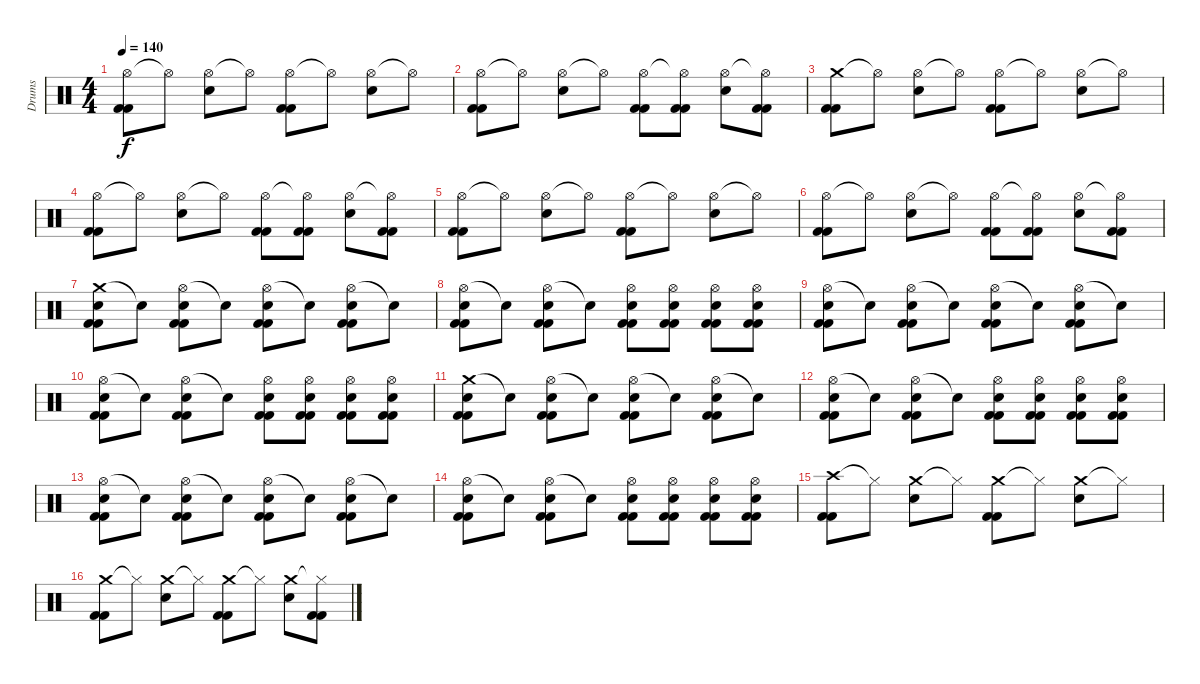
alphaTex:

\track ("Drums" "Drums") {instrument percussion}
\staff {score}
\articulation defaults
\ts (4 4)
\tempo 140
\clef neutral
\ks c
("Hi-Hat (open)" "Kick (hit) 2" "Kick (hit) 2").8{dy f} "Hi-Hat (open)"{t}.8 ("Hi-Hat (open)" "Electric Snare (hit)").8 "Hi-Hat (open)"{t}.8 ("Hi-Hat (open)" "Kick (hit) 2" "Kick (hit) 2").8 "Hi-Hat (open)"{t}.8 ("Hi-Hat (open)" "Electric Snare (hit)").8 "Hi-Hat (open)"{t}.8 |
("Hi-Hat (open)" "Kick (hit) 2" "Kick (hit) 2").8 "Hi-Hat (open)"{t}.8 ("Hi-Hat (open)" "Electric Snare (hit)").8 "Hi-Hat (open)"{t}.8 ("Hi-Hat (open)" "Kick (hit) 2" "Kick (hit) 2").8 ("Hi-Hat (open)"{t} "Kick (hit) 2" "Kick (hit) 2").8 ("Hi-Hat (open)" "Electric Snare (hit)").8 ("Hi-Hat (open)"{t} "Kick (hit) 2" "Kick (hit) 2").8 |
("Crash medium (hit)" "Kick (hit) 2" "Kick (hit) 2").8 "Hi-Hat (open)"{t}.8 ("Hi-Hat (open)" "Electric Snare (hit)").8 "Hi-Hat (open)"{t}.8 ("Hi-Hat (open)" "Kick (hit) 2" "Kick (hit) 2").8 "Hi-Hat (open)"{t}.8 ("Hi-Hat (open)" "Electric Snare (hit)").8 "Hi-Hat (open)"{t}.8 |
("Hi-Hat (open)" "Kick (hit) 2" "Kick (hit) 2").8 "Hi-Hat (open)"{t}.8 ("Hi-Hat (open)" "Electric Snare (hit)").8 "Hi-Hat (open)"{t}.8 ("Hi-Hat (open)" "Kick (hit) 2" "Kick (hit) 2").8 ("Hi-Hat (open)"{t} "Kick (hit) 2" "Kick (hit) 2").8 ("Hi-Hat (open)" "Electric Snare (hit)").8 ("Hi-Hat (open)"{t} "Kick (hit) 2" "Kick (hit) 2").8 |
("Hi-Hat (open)" "Kick (hit) 2" "Kick (hit) 2").8 "Hi-Hat (open)"{t}.8 ("Hi-Hat (open)" "Electric Snare (hit)").8 "Hi-Hat (open)"{t}.8 ("Hi-Hat (open)" "Kick (hit) 2" "Kick (hit) 2").8 "Hi-Hat (open)"{t}.8 ("Hi-Hat (open)" "Electric Snare (hit)").8 "Hi-Hat (open)"{t}.8 |
("Hi-Hat (open)" "Kick (hit) 2" "Kick (hit) 2").8 "Hi-Hat (open)"{t}.8 ("Hi-Hat (open)" "Electric Snare (hit)").8 "Hi-Hat (open)"{t}.8 ("Hi-Hat (open)" "Kick (hit) 2" "Kick (hit) 2").8 ("Hi-Hat (open)"{t} "Kick (hit) 2" "Kick (hit) 2").8 ("Hi-Hat (open)" "Electric Snare (hit)").8 ("Hi-Hat (open)"{t} "Kick (hit) 2" "Kick (hit) 2").8 |
("Crash medium (hit)" "Electric Snare (hit)" "Kick (hit) 2" "Kick (hit) 2").8 "Snare (hit)"{t}.8 ("Hi-Hat (open)" "Electric Snare (hit)" "Kick (hit) 2" "Kick (hit) 2").8 "Snare (hit)"{t}.8 ("Hi-Hat (open)" "Electric Snare (hit)" "Kick (hit) 2" "Kick (hit) 2").8 "Snare (hit)"{t}.8 ("Hi-Hat (open)" "Electric Snare (hit)" "Kick (hit) 2" "Kick (hit) 2").8 "Snare (hit)"{t}.8 |
("Hi-Hat (open)" "Electric Snare (hit)" "Kick (hit) 2" "Kick (hit) 2").8 "Snare (hit)"{t}.8 ("Hi-Hat (open)" "Electric Snare (hit)" "Kick (hit) 2" "Kick (hit) 2").8 "Snare (hit)"{t}.8 ("Hi-Hat (open)" "Electric Snare (hit)" "Kick (hit) 2" "Kick (hit) 2").8 ("Hi-Hat (open)" "Electric Snare (hit)" "Kick (hit) 2" "Kick (hit) 2").8 ("Hi-Hat (open)" "Electric Snare (hit)" "Kick (hit) 2" "Kick (hit) 2").8 ("Hi-Hat (open)" "Electric Snare (hit)" "Kick (hit) 2" "Kick (hit) 2").8 |
("Hi-Hat (open)" "Electric Snare (hit)" "Kick (hit) 2" "Kick (hit) 2").8 "Snare (hit)"{t}.8 ("Hi-Hat (open)" "Electric Snare (hit)" "Kick (hit) 2" "Kick (hit) 2").8 "Snare (hit)"{t}.8 ("Hi-Hat (open)" "Electric Snare (hit)" "Kick (hit) 2" "Kick (hit) 2").8 "Snare (hit)"{t}.8 ("Hi-Hat (open)" "Electric Snare (hit)" "Kick (hit) 2" "Kick (hit) 2").8 "Snare (hit)"{t}.8 |
("Hi-Hat (open)" "Electric Snare (hit)" "Kick (hit) 2" "Kick (hit) 2").8 "Snare (hit)"{t}.8 ("Hi-Hat (open)" "Electric Snare (hit)" "Kick (hit) 2" "Kick (hit) 2").8 "Snare (hit)"{t}.8 ("Hi-Hat (open)" "Electric Snare (hit)" "Kick (hit) 2" "Kick (hit) 2").8 ("Hi-Hat (open)" "Electric Snare (hit)" "Kick (hit) 2" "Kick (hit) 2").8 ("Hi-Hat (open)" "Electric Snare (hit)" "Kick (hit) 2" "Kick (hit) 2").8 ("Hi-Hat (open)" "Electric Snare (hit)" "Kick (hit) 2" "Kick (hit) 2").8 |
("Crash medium (hit)" "Electric Snare (hit)" "Kick (hit) 2" "Kick (hit) 2").8 "Snare (hit)"{t}.8 ("Hi-Hat (open)" "Electric Snare (hit)" "Kick (hit) 2" "Kick (hit) 2").8 "Snare (hit)"{t}.8 ("Hi-Hat (open)" "Electric Snare (hit)" "Kick (hit) 2" "Kick (hit) 2").8 "Snare (hit)"{t}.8 ("Hi-Hat (open)" "Electric Snare (hit)" "Kick (hit) 2" "Kick (hit) 2").8 "Snare (hit)"{t}.8 |
("Hi-Hat (open)" "Electric Snare (hit)" "Kick (hit) 2" "Kick (hit) 2").8 "Snare (hit)"{t}.8 ("Hi-Hat (open)" "Electric Snare (hit)" "Kick (hit) 2" "Kick (hit) 2").8 "Snare (hit)"{t}.8 ("Hi-Hat (open)" "Electric Snare (hit)" "Kick (hit) 2" "Kick (hit) 2").8 ("Hi-Hat (open)" "Electric Snare (hit)" "Kick (hit) 2" "Kick (hit) 2").8 ("Hi-Hat (open)" "Electric Snare (hit)" "Kick (hit) 2" "Kick (hit) 2").8 ("Hi-Hat (open)" "Electric Snare (hit)" "Kick (hit) 2" "Kick (hit) 2").8 |
("Hi-Hat (open)" "Electric Snare (hit)" "Kick (hit) 2" "Kick (hit) 2").8 "Snare (hit)"{t}.8 ("Hi-Hat (open)" "Electric Snare (hit)" "Kick (hit) 2" "Kick (hit) 2").8 "Snare (hit)"{t}.8 ("Hi-Hat (open)" "Electric Snare (hit)" "Kick (hit) 2" "Kick (hit) 2").8 "Snare (hit)"{t}.8 ("Hi-Hat (open)" "Electric Snare (hit)" "Kick (hit) 2" "Kick (hit) 2").8 "Snare (hit)"{t}.8 |
("Hi-Hat (open)" "Electric Snare (hit)" "Kick (hit) 2" "Kick (hit) 2").8 "Snare (hit)"{t}.8 ("Hi-Hat (open)" "Electric Snare (hit)" "Kick (hit) 2" "Kick (hit) 2").8 "Snare (hit)"{t}.8 ("Hi-Hat (open)" "Electric Snare (hit)" "Kick (hit) 2" "Kick (hit) 2").8 ("Hi-Hat (open)" "Electric Snare (hit)" "Kick (hit) 2" "Kick (hit) 2").8 ("Hi-Hat (open)" "Electric Snare (hit)" "Kick (hit) 2" "Kick (hit) 2").8 ("Hi-Hat (open)" "Electric Snare (hit)" "Kick (hit) 2" "Kick (hit) 2").8 |
("Crash high (hit)" "Kick (hit) 2" "Kick (hit) 2").8 "Hi-Hat (closed)"{t}.8 ("Crash medium (hit)" "Electric Snare (hit)").8 "Hi-Hat (closed)"{t}.8 ("Crash medium (hit)" "Kick (hit) 2" "Kick (hit) 2").8 "Hi-Hat (closed)"{t}.8 ("Crash medium (hit)" "Electric Snare (hit)").8 "Hi-Hat (closed)"{t}.8 |
("Crash medium (hit)" "Kick (hit) 2" "Kick (hit) 2").8 "Hi-Hat (closed)"{t}.8 ("Crash medium (hit)" "Electric Snare (hit)").8 "Hi-Hat (closed)"{t}.8 ("Crash medium (hit)" "Kick (hit) 2" "Kick (hit) 2").8 "Hi-Hat (closed)"{t}.8 ("Crash medium (hit)" "Electric Snare (hit)").8 ("Hi-Hat (closed)"{t} "Kick (hit) 2" "Kick (hit) 2").8
